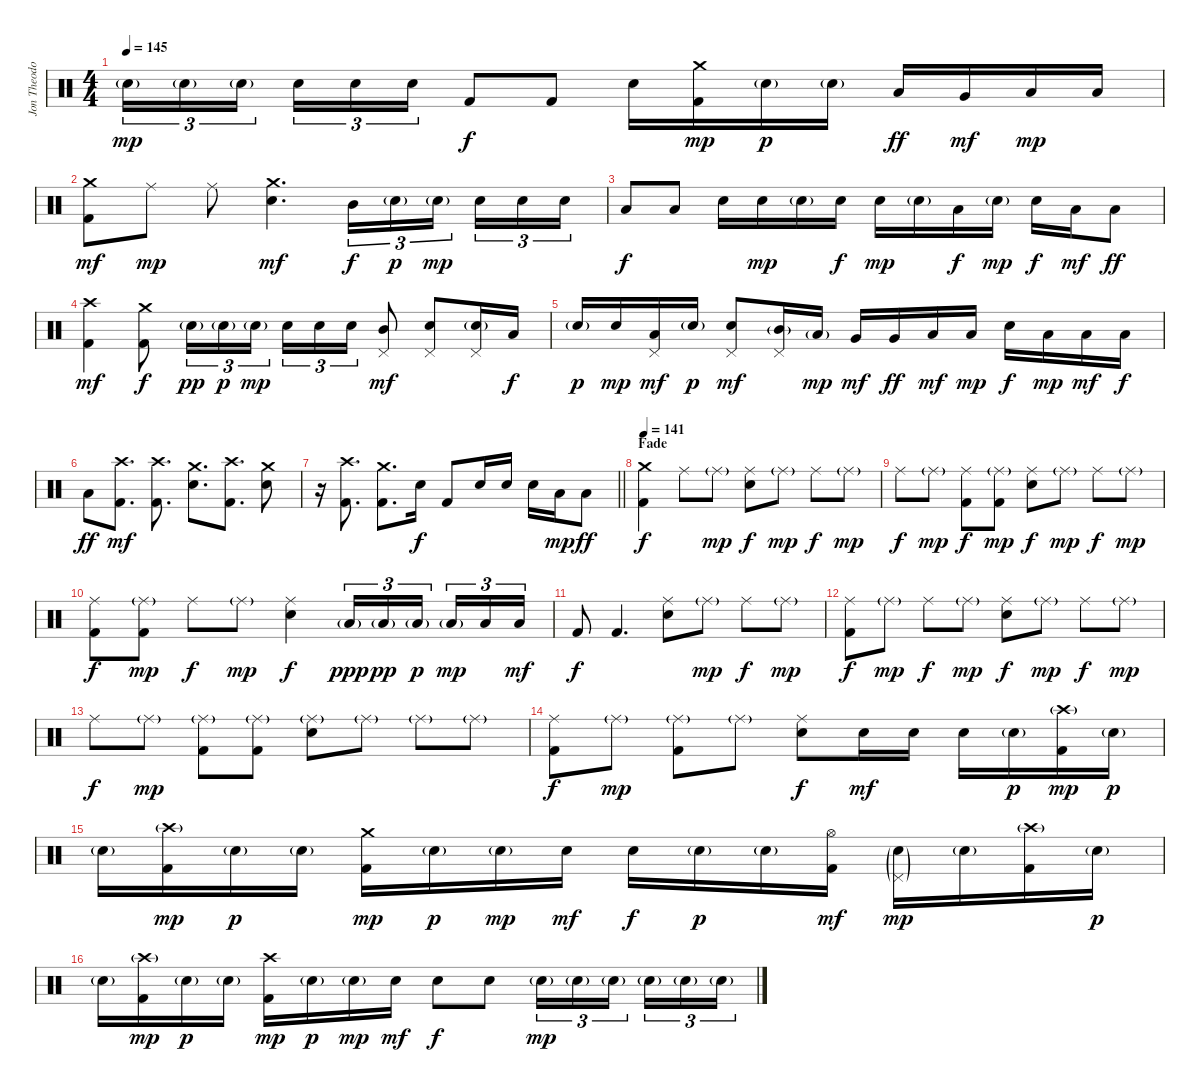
\track ("Jon Theodore - Drums" "Jon Theodo") {instrument percussion}
\staff {score}
\articulation defaults
\ts (4 4)
\tempo 145
\clef neutral
\ks c "Electric Snare (hit)"{g}.16{tu (3 2) dy mp} "Electric Snare (hit)"{g}.16{tu (3 2)} "Electric Snare (hit)"{g}.16{tu (3 2) beam splitsecondary} "Electric Snare (hit)".16{tu (3 2)} "Electric Snare (hit)".16{tu (3 2)} "Electric Snare (hit)".16{tu (3 2)} "Kick (hit) 2".8{dy f} "Kick (hit) 2".8 "Electric Snare (hit)".16
("Crash medium (hit)" "Kick (hit) 2").16{dy mp} "Electric Snare (hit)"{g}.16{dy p} "Electric Snare (hit)"{g}.16 "Low Tom (hit)".16{dy ff} "Very Low Tom (hit)".16{dy mf} "Low Floor Tom (hit)".16{dy mp} "Low Floor Tom (hit)".16 |
("Crash medium (hit)" "Kick (hit) 2").8{dy mf} "Ride (middle)".8{dy mp} "Ride (middle)".8 ("Crash medium (hit)" "Electric Snare (hit)").4{d dy mf} "Mid Tom (hit)".16{tu (3 2) dy f} "Electric Snare (hit)"{g}.16{tu (3 2) dy p} "Electric Snare (hit)"{g}.16{tu (3 2) dy mp beam splitsecondary} "Electric Snare (hit)".16{tu (3 2)} "Electric Snare (hit)".16{tu (3 2)} "Electric Snare (hit)".16{tu (3 2)} |
"Low Tom (hit)".8{dy f} "Low Tom (hit)".8 "Electric Snare (hit)".16 "Electric Snare (hit)".16{dy mp} "Electric Snare (hit)"{g}.16 "Electric Snare (hit)".16{dy f} "Electric Snare (hit)".16{dy mp} "Electric Snare (hit)"{g}.16 "Low Tom (hit)".16{dy f} "Electric Snare (hit)"{g}.16{dy mp} "Electric Snare (hit)".16{dy f} "Low Tom (hit)".16{dy mf} "Low Floor Tom (hit)".8{dy ff} |
("Crash high (hit)" "Kick (hit) 2").4{dy mf} ("Crash medium (hit)" "Kick (hit) 2").8{dy f} "Electric Snare (hit)"{g}.16{tu (3 2) dy pp} "Electric Snare (hit)"{g}.16{tu (3 2) dy p} "Electric Snare (hit)"{g}.16{tu (3 2) dy mp} "Electric Snare (hit)".16{tu (3 2)} "Electric Snare (hit)".16{tu (3 2)} "Electric Snare (hit)".16{tu (3 2)} ("Mid Tom (hit)" "Pedal Hi-Hat (hit)").8{dy mf} ("Electric Snare (hit)" "Pedal Hi-Hat (hit)").8 ("Electric Snare (hit)"{g} "Pedal Hi-Hat (hit)").16 "Low Tom (hit)".16{dy f} |
"Electric Snare (hit)"{g}.16{dy p} "Electric Snare (hit)".16{dy mp} ("Low Tom (hit)" "Pedal Hi-Hat (hit)").16{dy mf} "Electric Snare (hit)"{g}.16{dy p} ("Electric Snare (hit)" "Pedal Hi-Hat (hit)").8{dy mf} ("Mid Tom (hit)"{g} "Pedal Hi-Hat (hit)").16 "Low Tom (hit)"{g}.16{dy mp} "Very Low Tom (hit)".16{dy mf} "Very Low Tom (hit)".16{dy ff} "Low Floor Tom (hit)".16{dy mf} "Low Floor Tom (hit)".16{dy mp} "Electric Snare (hit)".16{dy f} "Low Tom (hit)".16{dy mp} "Low Tom (hit)".16{dy mf} "Low Tom (hit)".16{dy f} |
"Low Floor Tom (hit)".8{dy ff} ("Crash high (hit)" "Kick (hit) 2").8{d dy mf} ("Crash high (hit)" "Kick (hit) 2").8{d} ("Crash medium (hit)" "Electric Snare (hit)").8{d} ("Crash high (hit)" "Kick (hit) 2").8{d} ("Crash medium (hit)" "Electric Snare (hit)").8 |
\barLineRight lightlight
r.16 ("Crash high (hit)" "Kick (hit) 2").8{d} ("Crash medium (hit)" "Kick (hit) 2").8{d} "Electric Snare (hit)".16{dy f} "Kick (hit) 2".8 "Electric Snare (hit)".16 "Electric Snare (hit)".16 "Electric Snare (hit)".16 "Low Tom (hit)".16{dy mp} "Low Floor Tom (hit)".8{dy ff} |
\section ("" "Fade")
\tempo 141
("Crash medium (hit)" "Kick (hit) 2").4{dy f} "Ride (middle)".8 "Ride (middle)"{g}.8{dy mp} ("Ride (middle)" "Electric Snare (hit)").8{dy f} "Ride (middle)"{g}.8{dy mp} "Ride (middle)".8{dy f} "Ride (middle)"{g}.8{dy mp} |
"Ride (middle)".8{dy f} "Ride (middle)"{g}.8{dy mp} ("Ride (middle)" "Kick (hit) 2").8{dy f} ("Ride (middle)"{g} "Kick (hit) 2").8{dy mp} ("Ride (middle)" "Electric Snare (hit)").8{dy f} "Ride (middle)"{g}.8{dy mp} "Ride (middle)".8{dy f} "Ride (middle)"{g}.8{dy mp} |
("Ride (middle)" "Kick (hit) 2").8{dy f} ("Ride (middle)"{g} "Kick (hit) 2").8{dy mp} "Ride (middle)".8{dy f} "Ride (middle)"{g}.8{dy mp} ("Ride (middle)" "Electric Snare (hit)").4{dy f} "Low Tom (hit)"{g}.16{tu (3 2) dy ppp} "Low Tom (hit)"{g}.16{tu (3 2) dy pp} "Low Tom (hit)"{g}.16{tu (3 2) dy p beam splitsecondary} "Low Tom (hit)"{g}.16{tu (3 2) dy mp} "Low Tom (hit)".16{tu (3 2)} "Low Tom (hit)".16{tu (3 2) dy mf} |
"Kick (hit) 2".8{dy f} "Kick (hit) 2".4{d} ("Ride (middle)" "Electric Snare (hit)").8 "Ride (middle)"{g}.8{dy mp} "Ride (middle)".8{dy f} "Ride (middle)"{g}.8{dy mp} |
("Ride (middle)" "Kick (hit) 2").8{dy f} "Ride (middle)"{g}.8{dy mp} "Ride (middle)".8{dy f} "Ride (middle)"{g}.8{dy mp} ("Ride (middle)" "Electric Snare (hit)").8{dy f} "Ride (middle)"{g}.8{dy mp} "Ride (middle)".8{dy f} "Ride (middle)"{g}.8{dy mp} |
"Ride (middle)".8{dy f} "Ride (middle)"{g}.8{dy mp} ("Ride (middle)"{g} "Kick (hit) 2").8 ("Ride (middle)"{g} "Kick (hit) 2").8 ("Ride (middle)"{g} "Electric Snare (hit)").8 "Ride (middle)"{g}.8 "Ride (middle)"{g}.8 "Ride (middle)"{g}.8 |
("Ride (middle)" "Kick (hit) 2").8{dy f} "Ride (middle)"{g}.8{dy mp} ("Ride (middle)"{g} "Kick (hit) 2").8 "Ride (middle)"{g}.8 ("Ride (middle)" "Electric Snare (hit)").8{dy f} "Electric Snare (hit)".16{dy mf} "Electric Snare (hit)".16 "Electric Snare (hit)".16 "Electric Snare (hit)"{g}.16{dy p} ("Crash high (hit)"{g} "Kick (hit) 2").16{dy mp} "Electric Snare (hit)"{g}.16{dy p} |
"Electric Snare (hit)"{g}.16 ("Crash high (hit)"{g} "Kick (hit) 2").16{dy mp} "Electric Snare (hit)"{g}.16{dy p} "Electric Snare (hit)"{g}.16 ("Crash medium (hit)" "Kick (hit) 2").16{dy mp} "Electric Snare (hit)"{g}.16{dy p} "Electric Snare (hit)"{g}.16{dy mp} "Electric Snare (hit)".16{dy mf} "Electric Snare (hit)".16{dy f} "Electric Snare (hit)"{g}.16{dy p} "Electric Snare (hit)"{g}.16 ("Hi-Hat (open)" "Kick (hit) 2").16{dy mf} ("Electric Snare (hit)"{g} "Pedal Hi-Hat (hit)"{g}).16{dy mp} "Electric Snare (hit)"{g}.16 ("Crash high (hit)"{g} "Kick (hit) 2").16 "Electric Snare (hit)"{g}.16{dy p} |
"Electric Snare (hit)"{g}.16 ("Crash high (hit)"{g} "Kick (hit) 2").16{dy mp} "Electric Snare (hit)"{g}.16{dy p} "Electric Snare (hit)"{g}.16 ("Crash high (hit)" "Kick (hit) 2").16{dy mp} "Electric Snare (hit)"{g}.16{dy p} "Electric Snare (hit)"{g}.16{dy mp} "Electric Snare (hit)".16{dy mf} "Electric Snare (hit)".8{dy f} "Electric Snare (hit)".8 "Electric Snare (hit)"{g}.16{tu (3 2) dy mp} "Electric Snare (hit)"{g}.16{tu (3 2)} "Electric Snare (hit)"{g}.16{tu (3 2) beam splitsecondary} "Electric Snare (hit)"{g}.16{tu (3 2)} "Electric Snare (hit)"{g}.16{tu (3 2)} "Electric Snare (hit)"{g}.16{tu (3 2)}
